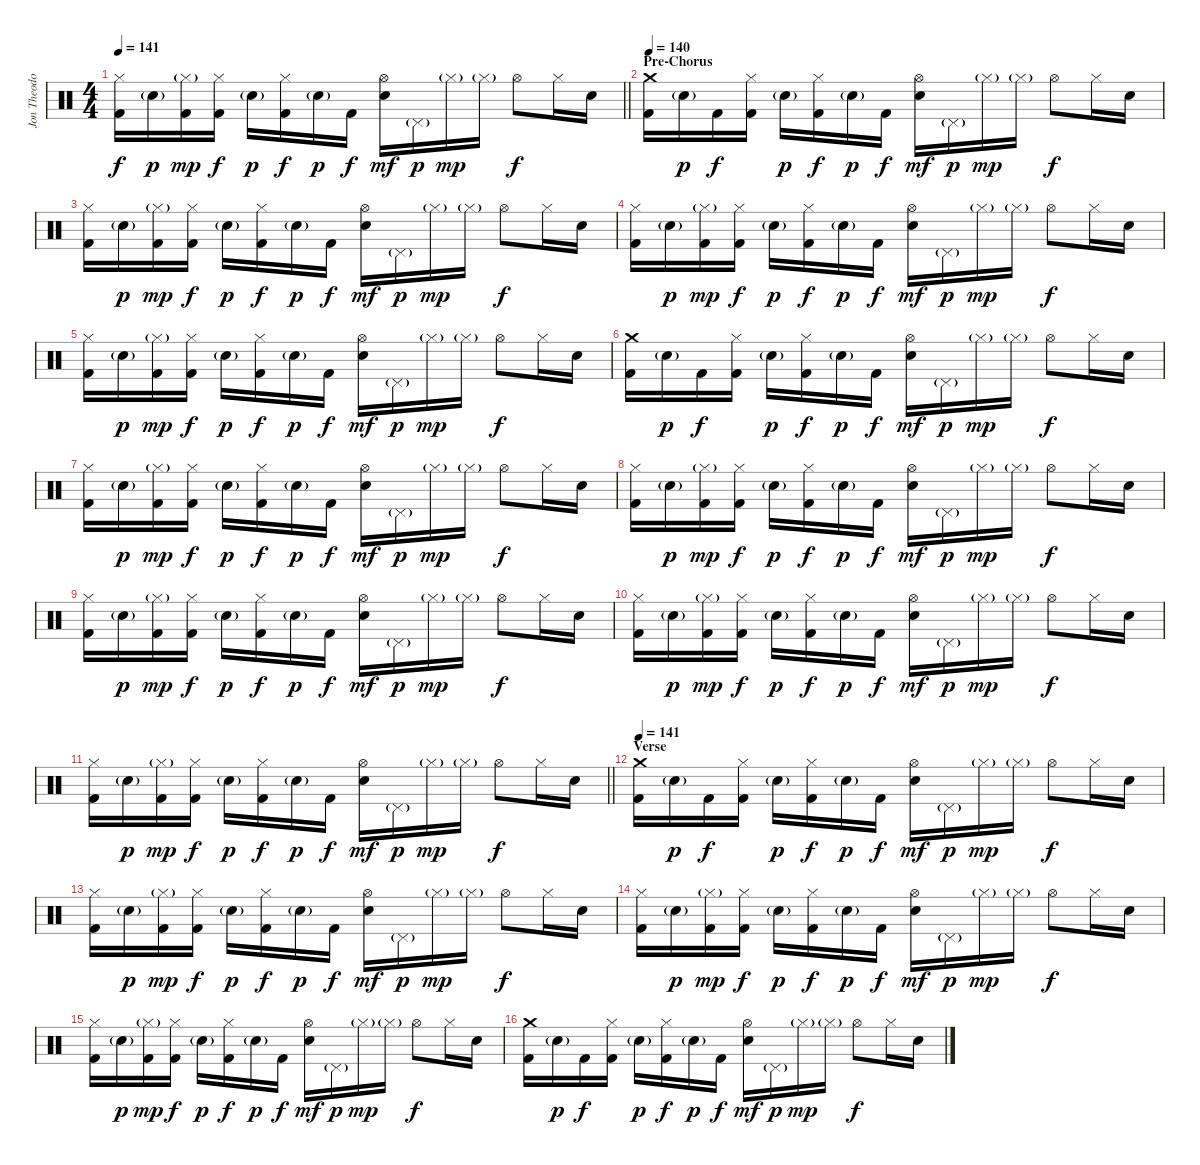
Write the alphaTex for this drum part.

\track ("Jon Theodore - Drums" "Jon Theodo") {instrument percussion}
\staff {score}
\articulation defaults
\ts (4 4)
\tempo 141
\clef neutral
\barLineRight lightlight
\ks c
("Hi-Hat (closed)" "Kick (hit) 2").16{dy f} "Electric Snare (hit)"{g}.16{dy p} ("Hi-Hat (closed)"{g} "Kick (hit) 2").16{dy mp} ("Hi-Hat (closed)" "Kick (hit) 2").16{dy f} "Electric Snare (hit)"{g}.16{dy p} ("Hi-Hat (closed)" "Kick (hit) 2").16{dy f} "Electric Snare (hit)"{g}.16{dy p} "Kick (hit) 2".16{dy f} ("Hi-Hat (open)" "Electric Snare (hit)").16{dy mf} "Pedal Hi-Hat (hit)"{g}.16{dy p} "Hi-Hat (closed)"{g}.16{dy mp} "Hi-Hat (closed)"{g}.16 "Hi-Hat (open)".8{dy f} "Hi-Hat (closed)".16 "Electric Snare (hit)".16 |
\section ("" "Pre-Chorus")
\tempo 140
("Crash medium (hit)" "Kick (hit) 2").16 "Electric Snare (hit)"{g}.16{dy p} "Kick (hit) 2".16{dy f} ("Hi-Hat (closed)" "Kick (hit) 2").16 "Electric Snare (hit)"{g}.16{dy p} ("Hi-Hat (closed)" "Kick (hit) 2").16{dy f} "Electric Snare (hit)"{g}.16{dy p} "Kick (hit) 2".16{dy f} ("Hi-Hat (open)" "Electric Snare (hit)").16{dy mf} "Pedal Hi-Hat (hit)"{g}.16{dy p} "Hi-Hat (closed)"{g}.16{dy mp} "Hi-Hat (closed)"{g}.16 "Hi-Hat (open)".8{dy f} "Hi-Hat (closed)".16 "Electric Snare (hit)".16 |
("Hi-Hat (closed)" "Kick (hit) 2").16 "Electric Snare (hit)"{g}.16{dy p} ("Hi-Hat (closed)"{g} "Kick (hit) 2").16{dy mp} ("Hi-Hat (closed)" "Kick (hit) 2").16{dy f} "Electric Snare (hit)"{g}.16{dy p} ("Hi-Hat (closed)" "Kick (hit) 2").16{dy f} "Electric Snare (hit)"{g}.16{dy p} "Kick (hit) 2".16{dy f} ("Hi-Hat (open)" "Electric Snare (hit)").16{dy mf} "Pedal Hi-Hat (hit)"{g}.16{dy p} "Hi-Hat (closed)"{g}.16{dy mp} "Hi-Hat (closed)"{g}.16 "Hi-Hat (open)".8{dy f} "Hi-Hat (closed)".16 "Electric Snare (hit)".16 |
("Hi-Hat (closed)" "Kick (hit) 2").16 "Electric Snare (hit)"{g}.16{dy p} ("Hi-Hat (closed)"{g} "Kick (hit) 2").16{dy mp} ("Hi-Hat (closed)" "Kick (hit) 2").16{dy f} "Electric Snare (hit)"{g}.16{dy p} ("Hi-Hat (closed)" "Kick (hit) 2").16{dy f} "Electric Snare (hit)"{g}.16{dy p} "Kick (hit) 2".16{dy f} ("Hi-Hat (open)" "Electric Snare (hit)").16{dy mf} "Pedal Hi-Hat (hit)"{g}.16{dy p} "Hi-Hat (closed)"{g}.16{dy mp} "Hi-Hat (closed)"{g}.16 "Hi-Hat (open)".8{dy f} "Hi-Hat (closed)".16 "Electric Snare (hit)".16 |
("Hi-Hat (closed)" "Kick (hit) 2").16 "Electric Snare (hit)"{g}.16{dy p} ("Hi-Hat (closed)"{g} "Kick (hit) 2").16{dy mp} ("Hi-Hat (closed)" "Kick (hit) 2").16{dy f} "Electric Snare (hit)"{g}.16{dy p} ("Hi-Hat (closed)" "Kick (hit) 2").16{dy f} "Electric Snare (hit)"{g}.16{dy p} "Kick (hit) 2".16{dy f} ("Hi-Hat (open)" "Electric Snare (hit)").16{dy mf} "Pedal Hi-Hat (hit)"{g}.16{dy p} "Hi-Hat (closed)"{g}.16{dy mp} "Hi-Hat (closed)"{g}.16 "Hi-Hat (open)".8{dy f} "Hi-Hat (closed)".16 "Electric Snare (hit)".16 |
("Crash medium (hit)" "Kick (hit) 2").16 "Electric Snare (hit)"{g}.16{dy p} "Kick (hit) 2".16{dy f} ("Hi-Hat (closed)" "Kick (hit) 2").16 "Electric Snare (hit)"{g}.16{dy p} ("Hi-Hat (closed)" "Kick (hit) 2").16{dy f} "Electric Snare (hit)"{g}.16{dy p} "Kick (hit) 2".16{dy f} ("Hi-Hat (open)" "Electric Snare (hit)").16{dy mf} "Pedal Hi-Hat (hit)"{g}.16{dy p} "Hi-Hat (closed)"{g}.16{dy mp} "Hi-Hat (closed)"{g}.16 "Hi-Hat (open)".8{dy f} "Hi-Hat (closed)".16 "Electric Snare (hit)".16 |
("Hi-Hat (closed)" "Kick (hit) 2").16 "Electric Snare (hit)"{g}.16{dy p} ("Hi-Hat (closed)"{g} "Kick (hit) 2").16{dy mp} ("Hi-Hat (closed)" "Kick (hit) 2").16{dy f} "Electric Snare (hit)"{g}.16{dy p} ("Hi-Hat (closed)" "Kick (hit) 2").16{dy f} "Electric Snare (hit)"{g}.16{dy p} "Kick (hit) 2".16{dy f} ("Hi-Hat (open)" "Electric Snare (hit)").16{dy mf} "Pedal Hi-Hat (hit)"{g}.16{dy p} "Hi-Hat (closed)"{g}.16{dy mp} "Hi-Hat (closed)"{g}.16 "Hi-Hat (open)".8{dy f} "Hi-Hat (closed)".16 "Electric Snare (hit)".16 |
("Hi-Hat (closed)" "Kick (hit) 2").16 "Electric Snare (hit)"{g}.16{dy p} ("Hi-Hat (closed)"{g} "Kick (hit) 2").16{dy mp} ("Hi-Hat (closed)" "Kick (hit) 2").16{dy f} "Electric Snare (hit)"{g}.16{dy p} ("Hi-Hat (closed)" "Kick (hit) 2").16{dy f} "Electric Snare (hit)"{g}.16{dy p} "Kick (hit) 2".16{dy f} ("Hi-Hat (open)" "Electric Snare (hit)").16{dy mf} "Pedal Hi-Hat (hit)"{g}.16{dy p} "Hi-Hat (closed)"{g}.16{dy mp} "Hi-Hat (closed)"{g}.16 "Hi-Hat (open)".8{dy f} "Hi-Hat (closed)".16 "Electric Snare (hit)".16 |
("Hi-Hat (closed)" "Kick (hit) 2").16 "Electric Snare (hit)"{g}.16{dy p} ("Hi-Hat (closed)"{g} "Kick (hit) 2").16{dy mp} ("Hi-Hat (closed)" "Kick (hit) 2").16{dy f} "Electric Snare (hit)"{g}.16{dy p} ("Hi-Hat (closed)" "Kick (hit) 2").16{dy f} "Electric Snare (hit)"{g}.16{dy p} "Kick (hit) 2".16{dy f} ("Hi-Hat (open)" "Electric Snare (hit)").16{dy mf} "Pedal Hi-Hat (hit)"{g}.16{dy p} "Hi-Hat (closed)"{g}.16{dy mp} "Hi-Hat (closed)"{g}.16 "Hi-Hat (open)".8{dy f} "Hi-Hat (closed)".16 "Electric Snare (hit)".16 |
("Hi-Hat (closed)" "Kick (hit) 2").16 "Electric Snare (hit)"{g}.16{dy p} ("Hi-Hat (closed)"{g} "Kick (hit) 2").16{dy mp} ("Hi-Hat (closed)" "Kick (hit) 2").16{dy f} "Electric Snare (hit)"{g}.16{dy p} ("Hi-Hat (closed)" "Kick (hit) 2").16{dy f} "Electric Snare (hit)"{g}.16{dy p} "Kick (hit) 2".16{dy f} ("Hi-Hat (open)" "Electric Snare (hit)").16{dy mf} "Pedal Hi-Hat (hit)"{g}.16{dy p} "Hi-Hat (closed)"{g}.16{dy mp} "Hi-Hat (closed)"{g}.16 "Hi-Hat (open)".8{dy f} "Hi-Hat (closed)".16 "Electric Snare (hit)".16 |
\barLineRight lightlight
("Hi-Hat (closed)" "Kick (hit) 2").16 "Electric Snare (hit)"{g}.16{dy p} ("Hi-Hat (closed)"{g} "Kick (hit) 2").16{dy mp} ("Hi-Hat (closed)" "Kick (hit) 2").16{dy f} "Electric Snare (hit)"{g}.16{dy p} ("Hi-Hat (closed)" "Kick (hit) 2").16{dy f} "Electric Snare (hit)"{g}.16{dy p} "Kick (hit) 2".16{dy f} ("Hi-Hat (open)" "Electric Snare (hit)").16{dy mf} "Pedal Hi-Hat (hit)"{g}.16{dy p} "Hi-Hat (closed)"{g}.16{dy mp} "Hi-Hat (closed)"{g}.16 "Hi-Hat (open)".8{dy f} "Hi-Hat (closed)".16 "Electric Snare (hit)".16 |
\section ("" "Verse")
\tempo 141
("Crash medium (hit)" "Kick (hit) 2").16 "Electric Snare (hit)"{g}.16{dy p} "Kick (hit) 2".16{dy f} ("Hi-Hat (closed)" "Kick (hit) 2").16 "Electric Snare (hit)"{g}.16{dy p} ("Hi-Hat (closed)" "Kick (hit) 2").16{dy f} "Electric Snare (hit)"{g}.16{dy p} "Kick (hit) 2".16{dy f} ("Hi-Hat (open)" "Electric Snare (hit)").16{dy mf} "Pedal Hi-Hat (hit)"{g}.16{dy p} "Hi-Hat (closed)"{g}.16{dy mp} "Hi-Hat (closed)"{g}.16 "Hi-Hat (open)".8{dy f} "Hi-Hat (closed)".16 "Electric Snare (hit)".16 |
("Hi-Hat (closed)" "Kick (hit) 2").16 "Electric Snare (hit)"{g}.16{dy p} ("Hi-Hat (closed)"{g} "Kick (hit) 2").16{dy mp} ("Hi-Hat (closed)" "Kick (hit) 2").16{dy f} "Electric Snare (hit)"{g}.16{dy p} ("Hi-Hat (closed)" "Kick (hit) 2").16{dy f} "Electric Snare (hit)"{g}.16{dy p} "Kick (hit) 2".16{dy f} ("Hi-Hat (open)" "Electric Snare (hit)").16{dy mf} "Pedal Hi-Hat (hit)"{g}.16{dy p} "Hi-Hat (closed)"{g}.16{dy mp} "Hi-Hat (closed)"{g}.16 "Hi-Hat (open)".8{dy f} "Hi-Hat (closed)".16 "Electric Snare (hit)".16 |
("Hi-Hat (closed)" "Kick (hit) 2").16 "Electric Snare (hit)"{g}.16{dy p} ("Hi-Hat (closed)"{g} "Kick (hit) 2").16{dy mp} ("Hi-Hat (closed)" "Kick (hit) 2").16{dy f} "Electric Snare (hit)"{g}.16{dy p} ("Hi-Hat (closed)" "Kick (hit) 2").16{dy f} "Electric Snare (hit)"{g}.16{dy p} "Kick (hit) 2".16{dy f} ("Hi-Hat (open)" "Electric Snare (hit)").16{dy mf} "Pedal Hi-Hat (hit)"{g}.16{dy p} "Hi-Hat (closed)"{g}.16{dy mp} "Hi-Hat (closed)"{g}.16 "Hi-Hat (open)".8{dy f} "Hi-Hat (closed)".16 "Electric Snare (hit)".16 |
("Hi-Hat (closed)" "Kick (hit) 2").16 "Electric Snare (hit)"{g}.16{dy p} ("Hi-Hat (closed)"{g} "Kick (hit) 2").16{dy mp} ("Hi-Hat (closed)" "Kick (hit) 2").16{dy f} "Electric Snare (hit)"{g}.16{dy p} ("Hi-Hat (closed)" "Kick (hit) 2").16{dy f} "Electric Snare (hit)"{g}.16{dy p} "Kick (hit) 2".16{dy f} ("Hi-Hat (open)" "Electric Snare (hit)").16{dy mf} "Pedal Hi-Hat (hit)"{g}.16{dy p} "Hi-Hat (closed)"{g}.16{dy mp} "Hi-Hat (closed)"{g}.16 "Hi-Hat (open)".8{dy f} "Hi-Hat (closed)".16 "Electric Snare (hit)".16 |
("Crash medium (hit)" "Kick (hit) 2").16 "Electric Snare (hit)"{g}.16{dy p} "Kick (hit) 2".16{dy f} ("Hi-Hat (closed)" "Kick (hit) 2").16 "Electric Snare (hit)"{g}.16{dy p} ("Hi-Hat (closed)" "Kick (hit) 2").16{dy f} "Electric Snare (hit)"{g}.16{dy p} "Kick (hit) 2".16{dy f} ("Hi-Hat (open)" "Electric Snare (hit)").16{dy mf} "Pedal Hi-Hat (hit)"{g}.16{dy p} "Hi-Hat (closed)"{g}.16{dy mp} "Hi-Hat (closed)"{g}.16 "Hi-Hat (open)".8{dy f} "Hi-Hat (closed)".16 "Electric Snare (hit)".16
